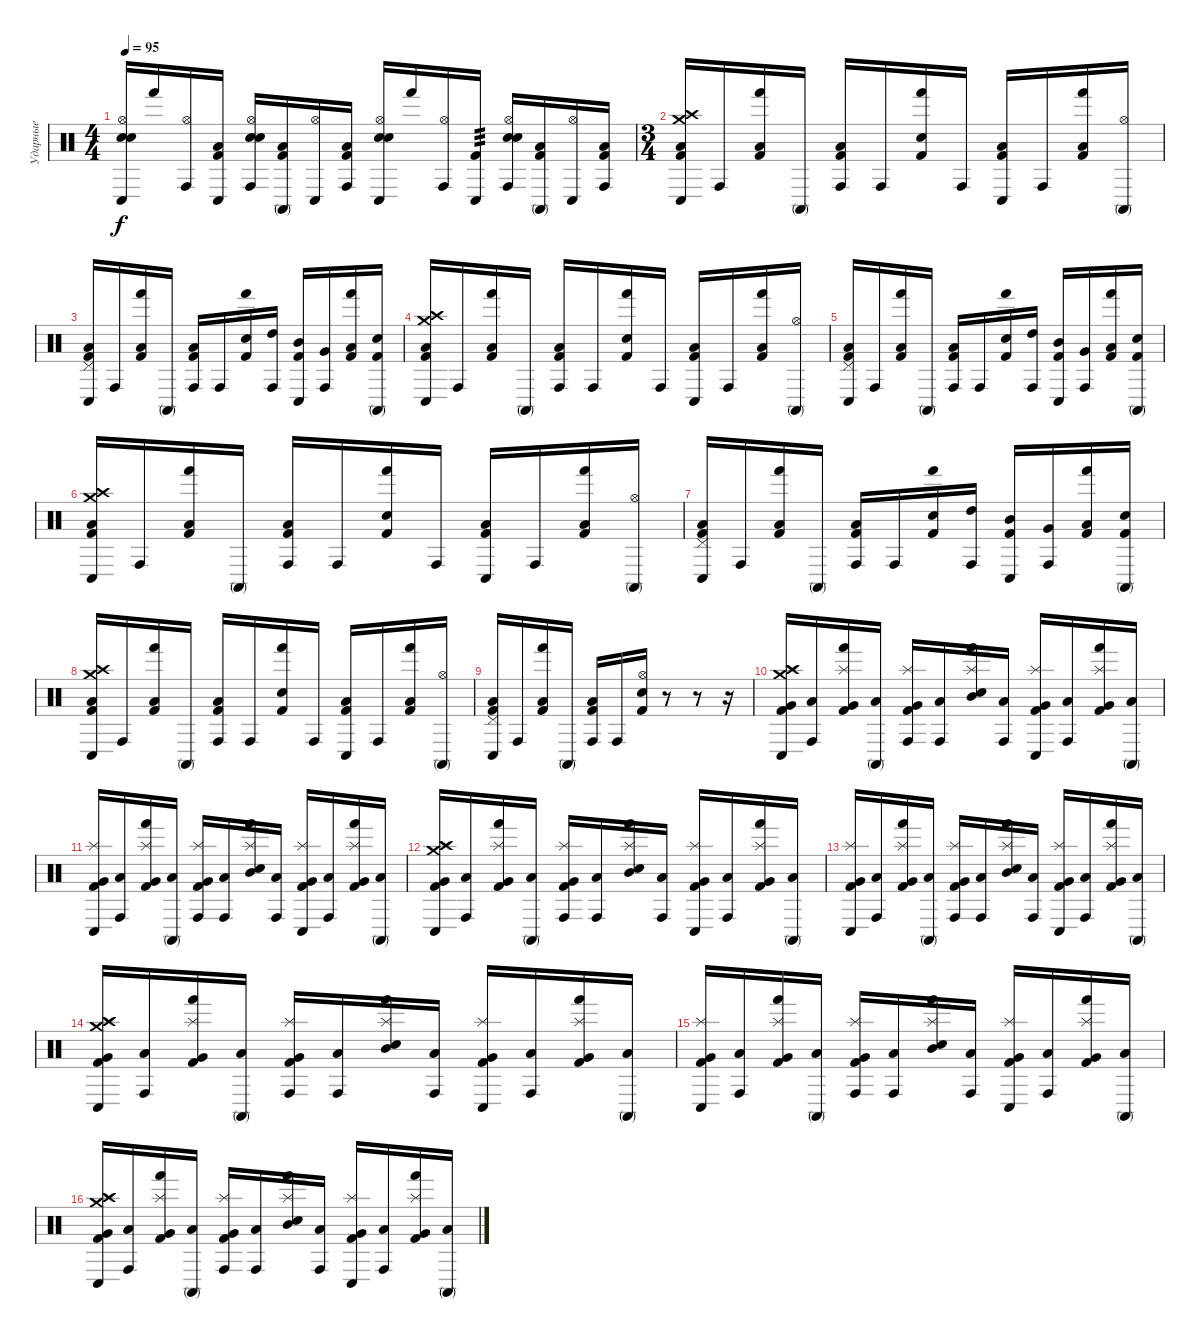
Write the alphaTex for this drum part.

\track ("Ударные" "Ударные") {instrument percussion}
\staff
\articulation defaults
\ts (4 4)
\tempo 95
\clef neutral
\ks c
("Hi-Hat (open)" "Conga low (hit)" "Snare (hit) 2" "Electric Snare (hit)").16{dy f} "Hand (hit)".16 ("Hi-Hat (open)" "Conga high (hit)").16 ("Conga low (hit)" "Low Floor Tom (hit)" "Kick (hit) 2").16 ("Hi-Hat (open)" "Conga high (hit)" "Snare (hit) 2" "Electric Snare (hit)").16 ("Conga high (mute)" "Low Floor Tom (hit)" "Kick (hit) 2").16 ("Hi-Hat (open)" "Conga low (hit)").16 ("Conga high (hit)" "Low Floor Tom (hit)" "Kick (hit) 2").16 ("Hi-Hat (open)" "Conga low (hit)" "Snare (hit) 2" "Electric Snare (hit)").16 "Hand (hit)".16 ("Hi-Hat (open)" "Conga high (hit)").16 ("Conga low (hit)" "Kick (hit) 2").16{tp 3} ("Hi-Hat (open)" "Conga high (hit)" "Snare (hit) 2" "Electric Snare (hit)").16 ("Conga high (mute)" "Low Floor Tom (hit)" "Kick (hit) 2").16 ("Hi-Hat (open)" "Conga low (hit)").16 ("Conga high (hit)" "Low Floor Tom (hit)" "Kick (hit) 2").16 |
\ts (3 4)
("Crash medium (hit)" "Crash high (hit)" "Conga low (hit)" "Low Tom (hit)" "Kick (hit) 2").16 "Conga high (hit)".16 ("Hand (hit)" "Low Tom (hit)" "Kick (hit) 2").16 "Conga high (mute)".16 ("Conga high (hit)" "Low Tom (hit)" "Kick (hit) 2").16 "Conga high (hit)".16 ("Hand (hit)" "Electric Snare (hit)" "Kick (hit) 2").16 "Conga high (hit)".16 ("Conga low (hit)" "Low Tom (hit)" "Kick (hit) 2").16 "Conga high (hit)".16 ("Hand (hit)" "Low Tom (hit)" "Kick (hit) 2").16 ("Conga high (mute)" "Hi-Hat (open)").16 |
("Conga low (hit)" "Pedal Hi-Hat (hit)" "Low Tom (hit)" "Kick (hit) 2").16 "Conga high (hit)".16 ("Hand (hit)" "Low Tom (hit)" "Kick (hit) 2").16 "Conga high (mute)".16 ("Conga high (hit)" "Low Tom (hit)" "Kick (hit) 2").16 "Conga high (hit)".16 ("Hand (hit)" "Electric Snare (hit)" "Kick (hit) 2").16 ("Conga high (hit)" "High Tom (hit)").16 ("Conga low (hit)" "Mid Tom (hit)" "Kick (hit) 2").16 ("Conga high (hit)" "Very Low Tom (hit)").16 ("Hand (hit)" "Low Floor Tom (hit)" "Kick (hit) 2").16 ("Conga high (mute)" "Electric Snare (hit)" "Kick (hit) 2").16 |
("Crash medium (hit)" "Crash high (hit)" "Conga low (hit)" "Low Tom (hit)" "Kick (hit) 2").16 "Conga high (hit)".16 ("Hand (hit)" "Low Tom (hit)" "Kick (hit) 2").16 "Conga high (mute)".16 ("Conga high (hit)" "Low Tom (hit)" "Kick (hit) 2").16 "Conga high (hit)".16 ("Hand (hit)" "Electric Snare (hit)" "Kick (hit) 2").16 "Conga high (hit)".16 ("Conga low (hit)" "Low Tom (hit)" "Kick (hit) 2").16 "Conga high (hit)".16 ("Hand (hit)" "Low Tom (hit)" "Kick (hit) 2").16 ("Conga high (mute)" "Hi-Hat (open)").16 |
("Conga low (hit)" "Pedal Hi-Hat (hit)" "Low Tom (hit)" "Kick (hit) 2").16 "Conga high (hit)".16 ("Hand (hit)" "Low Tom (hit)" "Kick (hit) 2").16 "Conga high (mute)".16 ("Conga high (hit)" "Low Tom (hit)" "Kick (hit) 2").16 "Conga high (hit)".16 ("Hand (hit)" "Electric Snare (hit)" "Kick (hit) 2").16 ("Conga high (hit)" "High Tom (hit)").16 ("Conga low (hit)" "Mid Tom (hit)" "Kick (hit) 2").16 ("Conga high (hit)" "Very Low Tom (hit)").16 ("Hand (hit)" "Low Floor Tom (hit)" "Kick (hit) 2").16 ("Conga high (mute)" "Electric Snare (hit)" "Kick (hit) 2").16 |
("Crash medium (hit)" "Crash high (hit)" "Conga low (hit)" "Low Tom (hit)" "Kick (hit) 2").16 "Conga high (hit)".16 ("Hand (hit)" "Low Tom (hit)" "Kick (hit) 2").16 "Conga high (mute)".16 ("Conga high (hit)" "Low Tom (hit)" "Kick (hit) 2").16 "Conga high (hit)".16 ("Hand (hit)" "Electric Snare (hit)" "Kick (hit) 2").16 "Conga high (hit)".16 ("Conga low (hit)" "Low Tom (hit)" "Kick (hit) 2").16 "Conga high (hit)".16 ("Hand (hit)" "Low Tom (hit)" "Kick (hit) 2").16 ("Conga high (mute)" "Hi-Hat (open)").16 |
("Conga low (hit)" "Pedal Hi-Hat (hit)" "Low Tom (hit)" "Kick (hit) 2").16 "Conga high (hit)".16 ("Hand (hit)" "Low Tom (hit)" "Kick (hit) 2").16 "Conga high (mute)".16 ("Conga high (hit)" "Low Tom (hit)" "Kick (hit) 2").16 "Conga high (hit)".16 ("Hand (hit)" "Electric Snare (hit)" "Kick (hit) 2").16 ("Conga high (hit)" "High Tom (hit)").16 ("Conga low (hit)" "Mid Tom (hit)" "Kick (hit) 2").16 ("Conga high (hit)" "Very Low Tom (hit)").16 ("Hand (hit)" "Low Floor Tom (hit)" "Kick (hit) 2").16 ("Conga high (mute)" "Electric Snare (hit)" "Kick (hit) 2").16 |
("Crash medium (hit)" "Crash high (hit)" "Conga low (hit)" "Low Tom (hit)" "Kick (hit) 2").16 "Conga high (hit)".16 ("Hand (hit)" "Low Tom (hit)" "Kick (hit) 2").16 "Conga high (mute)".16 ("Conga high (hit)" "Low Tom (hit)" "Kick (hit) 2").16 "Conga high (hit)".16 ("Hand (hit)" "Electric Snare (hit)" "Kick (hit) 2").16 "Conga high (hit)".16 ("Conga low (hit)" "Low Tom (hit)" "Kick (hit) 2").16 "Conga high (hit)".16 ("Hand (hit)" "Low Tom (hit)" "Kick (hit) 2").16 ("Conga high (mute)" "Hi-Hat (open)").16 |
("Conga low (hit)" "Pedal Hi-Hat (hit)" "Low Tom (hit)" "Kick (hit) 2").16 "Conga high (hit)".16 ("Hand (hit)" "Low Tom (hit)" "Kick (hit) 2").16 "Conga high (mute)".16 ("Conga high (hit)" "Low Tom (hit)" "Kick (hit) 2").16 "Conga high (hit)".16 ("Hi-Hat (open)" "Electric Snare (hit)" "Kick (hit) 2").16 r.8 r.8 r.16 |
("Crash medium (hit)" "Crash high (hit)" "Conga low (hit)" "Splash (hit)" "Very Low Tom (hit)" "Kick (hit) 2").16 ("Conga high (hit)" "Low Tom (hit)").16 ("Hand (hit)" "Splash (hit)" "Very Low Tom (hit)" "Kick (hit) 2").16 ("Conga high (mute)" "Low Floor Tom (hit)").16 ("Conga high (hit)" "Splash (hit)" "Very Low Tom (hit)" "Kick (hit) 2").16 ("Conga high (hit)" "Low Tom (hit)").16 ("Hand (hit)" "Splash (hit)" "Mid Tom (hit)" "Electric Snare (hit)").16 ("Conga high (hit)" "Low Tom (hit)").16 ("Conga low (hit)" "Splash (hit)" "Very Low Tom (hit)" "Kick (hit) 2").16 ("Conga high (hit)" "Low Tom (hit)").16 ("Hand (hit)" "Splash (hit)" "Very Low Tom (hit)" "Kick (hit) 2").16 ("Conga high (mute)" "Low Floor Tom (hit)").16 |
("Conga low (hit)" "Splash (hit)" "Very Low Tom (hit)" "Kick (hit) 2").16 ("Conga high (hit)" "Low Tom (hit)").16 ("Hand (hit)" "Splash (hit)" "Very Low Tom (hit)" "Kick (hit) 2").16 ("Conga high (mute)" "Low Floor Tom (hit)").16 ("Conga high (hit)" "Splash (hit)" "Very Low Tom (hit)" "Kick (hit) 2").16 ("Conga high (hit)" "Low Tom (hit)").16 ("Hand (hit)" "Splash (hit)" "Mid Tom (hit)" "Electric Snare (hit)").16 ("Conga high (hit)" "Low Tom (hit)").16 ("Conga low (hit)" "Splash (hit)" "Very Low Tom (hit)" "Kick (hit) 2").16 ("Conga high (hit)" "Low Tom (hit)").16 ("Hand (hit)" "Splash (hit)" "Very Low Tom (hit)" "Kick (hit) 2").16 ("Conga high (mute)" "Low Floor Tom (hit)").16 |
("Crash medium (hit)" "Crash high (hit)" "Conga low (hit)" "Splash (hit)" "Very Low Tom (hit)" "Kick (hit) 2").16 ("Conga high (hit)" "Low Tom (hit)").16 ("Hand (hit)" "Splash (hit)" "Very Low Tom (hit)" "Kick (hit) 2").16 ("Conga high (mute)" "Low Floor Tom (hit)").16 ("Conga high (hit)" "Splash (hit)" "Very Low Tom (hit)" "Kick (hit) 2").16 ("Conga high (hit)" "Low Tom (hit)").16 ("Hand (hit)" "Splash (hit)" "Mid Tom (hit)" "Electric Snare (hit)").16 ("Conga high (hit)" "Low Tom (hit)").16 ("Conga low (hit)" "Splash (hit)" "Very Low Tom (hit)" "Kick (hit) 2").16 ("Conga high (hit)" "Low Tom (hit)").16 ("Hand (hit)" "Splash (hit)" "Very Low Tom (hit)" "Kick (hit) 2").16 ("Conga high (mute)" "Low Floor Tom (hit)").16 |
("Conga low (hit)" "Splash (hit)" "Very Low Tom (hit)" "Kick (hit) 2").16 ("Conga high (hit)" "Low Tom (hit)").16 ("Hand (hit)" "Splash (hit)" "Very Low Tom (hit)" "Kick (hit) 2").16 ("Conga high (mute)" "Low Floor Tom (hit)").16 ("Conga high (hit)" "Splash (hit)" "Very Low Tom (hit)" "Kick (hit) 2").16 ("Conga high (hit)" "Low Tom (hit)").16 ("Hand (hit)" "Splash (hit)" "Mid Tom (hit)" "Electric Snare (hit)").16 ("Conga high (hit)" "Low Tom (hit)").16 ("Conga low (hit)" "Splash (hit)" "Very Low Tom (hit)" "Kick (hit) 2").16 ("Conga high (hit)" "Low Tom (hit)").16 ("Hand (hit)" "Splash (hit)" "Very Low Tom (hit)" "Kick (hit) 2").16 ("Conga high (mute)" "Low Floor Tom (hit)").16 |
("Crash medium (hit)" "Crash high (hit)" "Conga low (hit)" "Splash (hit)" "Very Low Tom (hit)" "Kick (hit) 2").16 ("Conga high (hit)" "Low Tom (hit)").16 ("Hand (hit)" "Splash (hit)" "Very Low Tom (hit)" "Kick (hit) 2").16 ("Conga high (mute)" "Low Floor Tom (hit)").16 ("Conga high (hit)" "Splash (hit)" "Very Low Tom (hit)" "Kick (hit) 2").16 ("Conga high (hit)" "Low Tom (hit)").16 ("Hand (hit)" "Splash (hit)" "Mid Tom (hit)" "Electric Snare (hit)").16 ("Conga high (hit)" "Low Tom (hit)").16 ("Conga low (hit)" "Splash (hit)" "Very Low Tom (hit)" "Kick (hit) 2").16 ("Conga high (hit)" "Low Tom (hit)").16 ("Hand (hit)" "Splash (hit)" "Very Low Tom (hit)" "Kick (hit) 2").16 ("Conga high (mute)" "Low Floor Tom (hit)").16 |
("Conga low (hit)" "Splash (hit)" "Very Low Tom (hit)" "Kick (hit) 2").16 ("Conga high (hit)" "Low Tom (hit)").16 ("Hand (hit)" "Splash (hit)" "Very Low Tom (hit)" "Kick (hit) 2").16 ("Conga high (mute)" "Low Floor Tom (hit)").16 ("Conga high (hit)" "Splash (hit)" "Very Low Tom (hit)" "Kick (hit) 2").16 ("Conga high (hit)" "Low Tom (hit)").16 ("Hand (hit)" "Splash (hit)" "Mid Tom (hit)" "Electric Snare (hit)").16 ("Conga high (hit)" "Low Tom (hit)").16 ("Conga low (hit)" "Splash (hit)" "Very Low Tom (hit)" "Kick (hit) 2").16 ("Conga high (hit)" "Low Tom (hit)").16 ("Hand (hit)" "Splash (hit)" "Very Low Tom (hit)" "Kick (hit) 2").16 ("Conga high (mute)" "Low Floor Tom (hit)").16 |
("Crash medium (hit)" "Crash high (hit)" "Conga low (hit)" "Splash (hit)" "Very Low Tom (hit)" "Kick (hit) 2").16 ("Conga high (hit)" "Low Tom (hit)").16 ("Hand (hit)" "Splash (hit)" "Very Low Tom (hit)" "Kick (hit) 2").16 ("Conga high (mute)" "Low Floor Tom (hit)").16 ("Conga high (hit)" "Splash (hit)" "Very Low Tom (hit)" "Kick (hit) 2").16 ("Conga high (hit)" "Low Tom (hit)").16 ("Hand (hit)" "Splash (hit)" "Mid Tom (hit)" "Electric Snare (hit)").16 ("Conga high (hit)" "Low Tom (hit)").16 ("Conga low (hit)" "Splash (hit)" "Very Low Tom (hit)" "Kick (hit) 2").16 ("Conga high (hit)" "Low Tom (hit)").16 ("Hand (hit)" "Splash (hit)" "Very Low Tom (hit)" "Kick (hit) 2").16 ("Conga high (mute)" "Low Floor Tom (hit)").16
